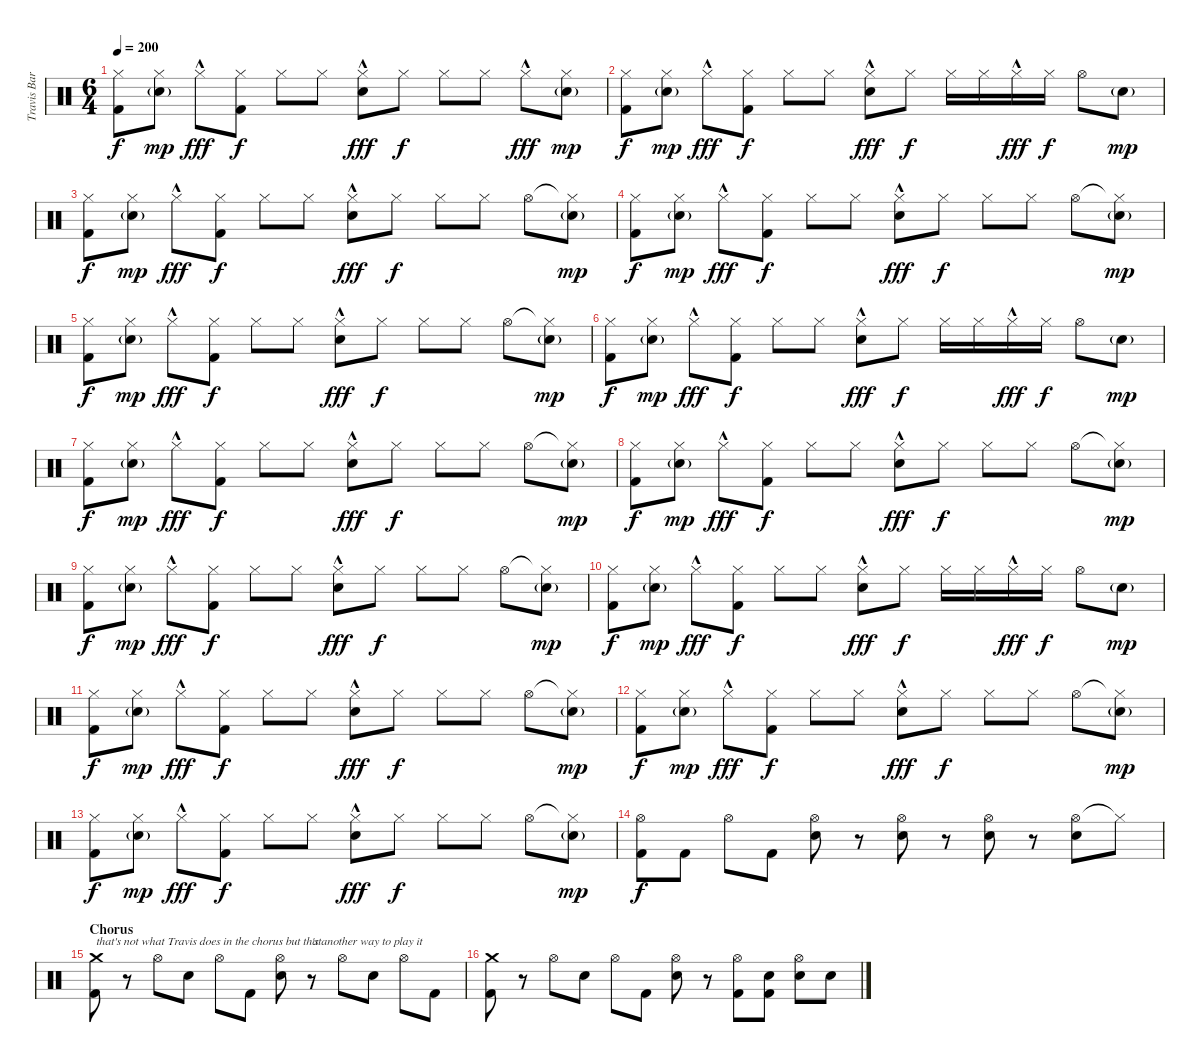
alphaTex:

\track ("Travis Barker - Drums" "Travis Bar") {instrument percussion}
\staff {score}
\articulation defaults
\ts (6 4)
\tempo 200
\clef neutral
\ks c
("Hi-Hat (closed)" "Kick (hit) 2").8{dy f} ("Hi-Hat (closed)" "Electric Snare (hit)"{g}).8{dy mp} "Hi-Hat (closed)"{hac}.8{dy fff} ("Hi-Hat (closed)" "Kick (hit) 2").8{dy f} "Hi-Hat (closed)".8 "Hi-Hat (closed)".8 ("Hi-Hat (closed)"{hac} "Electric Snare (hit)").8{dy fff} "Hi-Hat (closed)".8{dy f} "Hi-Hat (closed)".8 "Hi-Hat (closed)".8 "Hi-Hat (closed)"{hac}.8{dy fff} ("Hi-Hat (closed)" "Electric Snare (hit)"{g}).8{dy mp} |
("Hi-Hat (closed)" "Kick (hit) 2").8{dy f} ("Hi-Hat (closed)" "Electric Snare (hit)"{g}).8{dy mp} "Hi-Hat (closed)"{hac}.8{dy fff} ("Hi-Hat (closed)" "Kick (hit) 2").8{dy f} "Hi-Hat (closed)".8 "Hi-Hat (closed)".8 ("Hi-Hat (closed)"{hac} "Electric Snare (hit)").8{dy fff} "Hi-Hat (closed)".8{dy f} "Hi-Hat (closed)".16 "Hi-Hat (closed)".16 "Hi-Hat (closed)"{hac}.16{dy fff} "Hi-Hat (closed)".16{dy f} "Hi-Hat (open)".8 "Electric Snare (hit)"{g}.8{dy mp} |
("Hi-Hat (closed)" "Kick (hit) 2").8{dy f} ("Hi-Hat (closed)" "Electric Snare (hit)"{g}).8{dy mp} "Hi-Hat (closed)"{hac}.8{dy fff} ("Hi-Hat (closed)" "Kick (hit) 2").8{dy f} "Hi-Hat (closed)".8 "Hi-Hat (closed)".8 ("Hi-Hat (closed)"{hac} "Electric Snare (hit)").8{dy fff} "Hi-Hat (closed)".8{dy f} "Hi-Hat (closed)".8 "Hi-Hat (closed)".8 "Hi-Hat (open)".8 ("Hi-Hat (closed)"{t} "Electric Snare (hit)"{g}).8{dy mp} |
("Hi-Hat (closed)" "Kick (hit) 2").8{dy f} ("Hi-Hat (closed)" "Electric Snare (hit)"{g}).8{dy mp} "Hi-Hat (closed)"{hac}.8{dy fff} ("Hi-Hat (closed)" "Kick (hit) 2").8{dy f} "Hi-Hat (closed)".8 "Hi-Hat (closed)".8 ("Hi-Hat (closed)"{hac} "Electric Snare (hit)").8{dy fff} "Hi-Hat (closed)".8{dy f} "Hi-Hat (closed)".8 "Hi-Hat (closed)".8 "Hi-Hat (open)".8 ("Hi-Hat (closed)"{t} "Electric Snare (hit)"{g}).8{dy mp} |
("Hi-Hat (closed)" "Kick (hit) 2").8{dy f} ("Hi-Hat (closed)" "Electric Snare (hit)"{g}).8{dy mp} "Hi-Hat (closed)"{hac}.8{dy fff} ("Hi-Hat (closed)" "Kick (hit) 2").8{dy f} "Hi-Hat (closed)".8 "Hi-Hat (closed)".8 ("Hi-Hat (closed)"{hac} "Electric Snare (hit)").8{dy fff} "Hi-Hat (closed)".8{dy f} "Hi-Hat (closed)".8 "Hi-Hat (closed)".8 "Hi-Hat (open)".8 ("Hi-Hat (closed)"{t} "Electric Snare (hit)"{g}).8{dy mp} |
("Hi-Hat (closed)" "Kick (hit) 2").8{dy f} ("Hi-Hat (closed)" "Electric Snare (hit)"{g}).8{dy mp} "Hi-Hat (closed)"{hac}.8{dy fff} ("Hi-Hat (closed)" "Kick (hit) 2").8{dy f} "Hi-Hat (closed)".8 "Hi-Hat (closed)".8 ("Hi-Hat (closed)"{hac} "Electric Snare (hit)").8{dy fff} "Hi-Hat (closed)".8{dy f} "Hi-Hat (closed)".16 "Hi-Hat (closed)".16 "Hi-Hat (closed)"{hac}.16{dy fff} "Hi-Hat (closed)".16{dy f} "Hi-Hat (open)".8 "Electric Snare (hit)"{g}.8{dy mp} |
("Hi-Hat (closed)" "Kick (hit) 2").8{dy f} ("Hi-Hat (closed)" "Electric Snare (hit)"{g}).8{dy mp} "Hi-Hat (closed)"{hac}.8{dy fff} ("Hi-Hat (closed)" "Kick (hit) 2").8{dy f} "Hi-Hat (closed)".8 "Hi-Hat (closed)".8 ("Hi-Hat (closed)"{hac} "Electric Snare (hit)").8{dy fff} "Hi-Hat (closed)".8{dy f} "Hi-Hat (closed)".8 "Hi-Hat (closed)".8 "Hi-Hat (open)".8 ("Hi-Hat (closed)"{t} "Electric Snare (hit)"{g}).8{dy mp} |
("Hi-Hat (closed)" "Kick (hit) 2").8{dy f} ("Hi-Hat (closed)" "Electric Snare (hit)"{g}).8{dy mp} "Hi-Hat (closed)"{hac}.8{dy fff} ("Hi-Hat (closed)" "Kick (hit) 2").8{dy f} "Hi-Hat (closed)".8 "Hi-Hat (closed)".8 ("Hi-Hat (closed)"{hac} "Electric Snare (hit)").8{dy fff} "Hi-Hat (closed)".8{dy f} "Hi-Hat (closed)".8 "Hi-Hat (closed)".8 "Hi-Hat (open)".8 ("Hi-Hat (closed)"{t} "Electric Snare (hit)"{g}).8{dy mp} |
("Hi-Hat (closed)" "Kick (hit) 2").8{dy f} ("Hi-Hat (closed)" "Electric Snare (hit)"{g}).8{dy mp} "Hi-Hat (closed)"{hac}.8{dy fff} ("Hi-Hat (closed)" "Kick (hit) 2").8{dy f} "Hi-Hat (closed)".8 "Hi-Hat (closed)".8 ("Hi-Hat (closed)"{hac} "Electric Snare (hit)").8{dy fff} "Hi-Hat (closed)".8{dy f} "Hi-Hat (closed)".8 "Hi-Hat (closed)".8 "Hi-Hat (open)".8 ("Hi-Hat (closed)"{t} "Electric Snare (hit)"{g}).8{dy mp} |
("Hi-Hat (closed)" "Kick (hit) 2").8{dy f} ("Hi-Hat (closed)" "Electric Snare (hit)"{g}).8{dy mp} "Hi-Hat (closed)"{hac}.8{dy fff} ("Hi-Hat (closed)" "Kick (hit) 2").8{dy f} "Hi-Hat (closed)".8 "Hi-Hat (closed)".8 ("Hi-Hat (closed)"{hac} "Electric Snare (hit)").8{dy fff} "Hi-Hat (closed)".8{dy f} "Hi-Hat (closed)".16 "Hi-Hat (closed)".16 "Hi-Hat (closed)"{hac}.16{dy fff} "Hi-Hat (closed)".16{dy f} "Hi-Hat (open)".8 "Electric Snare (hit)"{g}.8{dy mp} |
("Hi-Hat (closed)" "Kick (hit) 2").8{dy f} ("Hi-Hat (closed)" "Electric Snare (hit)"{g}).8{dy mp} "Hi-Hat (closed)"{hac}.8{dy fff} ("Hi-Hat (closed)" "Kick (hit) 2").8{dy f} "Hi-Hat (closed)".8 "Hi-Hat (closed)".8 ("Hi-Hat (closed)"{hac} "Electric Snare (hit)").8{dy fff} "Hi-Hat (closed)".8{dy f} "Hi-Hat (closed)".8 "Hi-Hat (closed)".8 "Hi-Hat (open)".8 ("Hi-Hat (closed)"{t} "Electric Snare (hit)"{g}).8{dy mp} |
("Hi-Hat (closed)" "Kick (hit) 2").8{dy f} ("Hi-Hat (closed)" "Electric Snare (hit)"{g}).8{dy mp} "Hi-Hat (closed)"{hac}.8{dy fff} ("Hi-Hat (closed)" "Kick (hit) 2").8{dy f} "Hi-Hat (closed)".8 "Hi-Hat (closed)".8 ("Hi-Hat (closed)"{hac} "Electric Snare (hit)").8{dy fff} "Hi-Hat (closed)".8{dy f} "Hi-Hat (closed)".8 "Hi-Hat (closed)".8 "Hi-Hat (open)".8 ("Hi-Hat (closed)"{t} "Electric Snare (hit)"{g}).8{dy mp} |
("Hi-Hat (closed)" "Kick (hit) 2").8{dy f} ("Hi-Hat (closed)" "Electric Snare (hit)"{g}).8{dy mp} "Hi-Hat (closed)"{hac}.8{dy fff} ("Hi-Hat (closed)" "Kick (hit) 2").8{dy f} "Hi-Hat (closed)".8 "Hi-Hat (closed)".8 ("Hi-Hat (closed)"{hac} "Electric Snare (hit)").8{dy fff} "Hi-Hat (closed)".8{dy f} "Hi-Hat (closed)".8 "Hi-Hat (closed)".8 "Hi-Hat (open)".8 ("Hi-Hat (closed)"{t} "Electric Snare (hit)"{g}).8{dy mp} |
("Hi-Hat (open)" "Kick (hit) 2").8{dy f} "Kick (hit) 2".8 "Hi-Hat (open)".8 "Kick (hit) 2".8 ("Hi-Hat (open)" "Electric Snare (hit)").8 r.8 ("Hi-Hat (open)" "Electric Snare (hit)").8 r.8 ("Hi-Hat (open)" "Electric Snare (hit)").8 r.8 ("Hi-Hat (open)" "Electric Snare (hit)").8 "Hi-Hat (closed)"{t}.8 |
\section ("" "Chorus")
("Crash medium (hit)" "Kick (hit) 2").8{txt "that's not what Travis does in the chorus but that"} r.8 "Hi-Hat (open)".8 "Electric Snare (hit)".8 "Hi-Hat (open)".8 "Kick (hit) 2".8 ("Hi-Hat (open)" "Electric Snare (hit)").8 r.8{txt "'s another way to play it"} "Hi-Hat (open)".8 "Electric Snare (hit)".8 "Hi-Hat (open)".8 "Kick (hit) 2".8 |
("Crash medium (hit)" "Kick (hit) 2").8 r.8 "Hi-Hat (open)".8 "Electric Snare (hit)".8 "Hi-Hat (open)".8 "Kick (hit) 2".8 ("Hi-Hat (open)" "Electric Snare (hit)").8 r.8 ("Hi-Hat (open)" "Kick (hit) 2").8 ("Electric Snare (hit)" "Kick (hit) 2").8 ("Hi-Hat (open)" "Electric Snare (hit)").8 "Electric Snare (hit)".8
